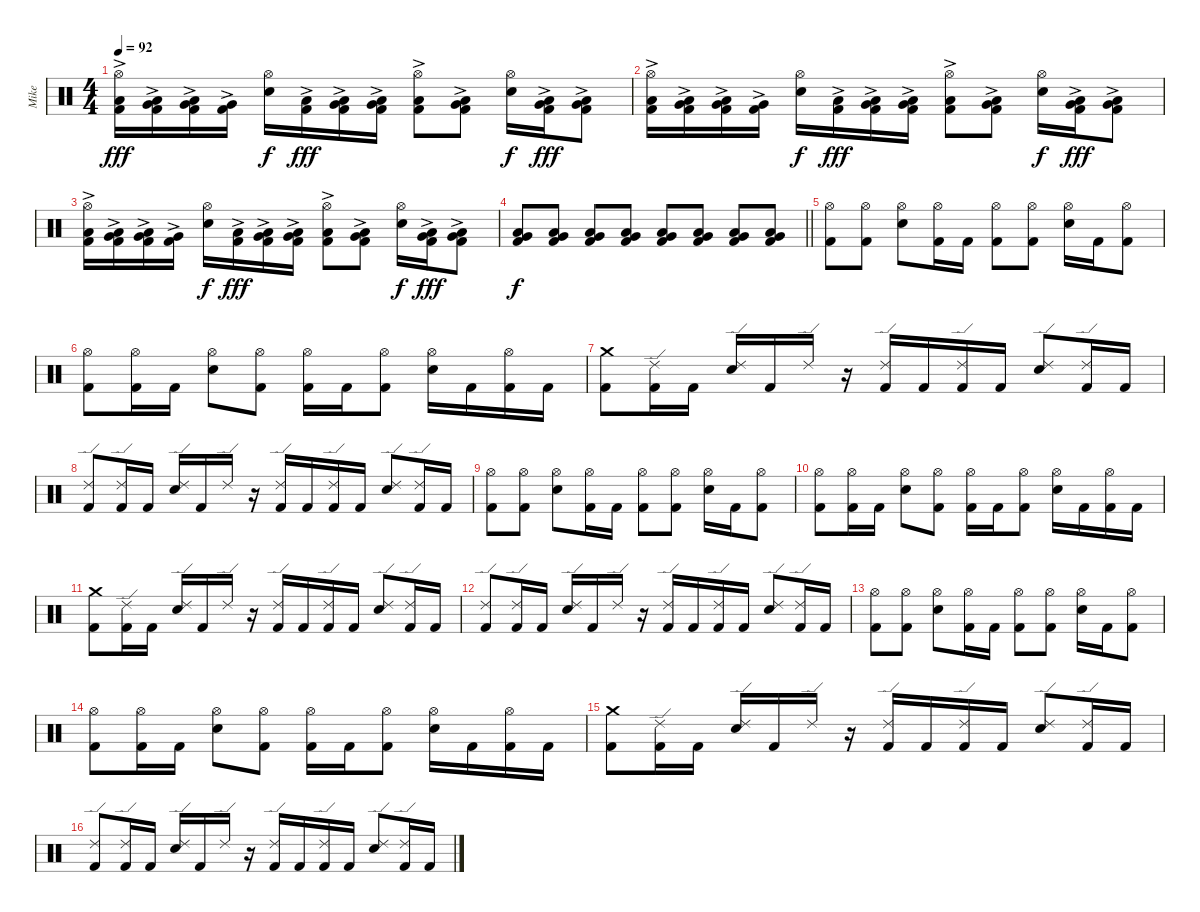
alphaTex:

\track ("Mike" "Mike") {instrument percussion}
\staff {score}
\articulation defaults
\ts (4 4)
\tempo 92
\clef neutral
\ks c
("Hi-Hat (open)" "Low Tom (hit)"{ac} "Kick (hit) 2").16{dy fff} ("Low Tom (hit)"{ac} "Very Low Tom (hit)"{ac} "Kick (hit) 2").16 ("Very Low Tom (hit)"{ac} "Low Floor Tom (hit)"{ac} "Kick (hit) 2").16 ("Very Low Tom (hit)"{ac} "Kick (hit) 2").16 ("Hi-Hat (open)" "Snare (hit) 2").16{dy f} ("Low Tom (hit)"{ac} "Kick (hit) 2").16{dy fff} ("Low Tom (hit)"{ac} "Very Low Tom (hit)"{ac} "Kick (hit) 2").16 ("Very Low Tom (hit)"{ac} "Low Floor Tom (hit)"{ac} "Kick (hit) 2").16 ("Hi-Hat (open)" "Low Floor Tom (hit)"{ac} "Kick (hit) 2").8 ("Very Low Tom (hit)"{ac} "Low Floor Tom (hit)"{ac} "Kick (hit) 2").8 ("Hi-Hat (open)" "Snare (hit) 2").16{dy f} ("Very Low Tom (hit)"{ac} "Low Floor Tom (hit)"{ac} "Kick (hit) 2").16{dy fff} ("Very Low Tom (hit)"{ac} "Low Tom (hit)"{ac} "Kick (hit) 2").8 |
("Hi-Hat (open)" "Low Tom (hit)"{ac} "Kick (hit) 2").16 ("Low Tom (hit)"{ac} "Very Low Tom (hit)"{ac} "Kick (hit) 2").16 ("Very Low Tom (hit)"{ac} "Low Floor Tom (hit)"{ac} "Kick (hit) 2").16 ("Very Low Tom (hit)"{ac} "Kick (hit) 2").16 ("Hi-Hat (open)" "Snare (hit) 2").16{dy f} ("Low Tom (hit)"{ac} "Kick (hit) 2").16{dy fff} ("Low Tom (hit)"{ac} "Very Low Tom (hit)"{ac} "Kick (hit) 2").16 ("Very Low Tom (hit)"{ac} "Low Floor Tom (hit)"{ac} "Kick (hit) 2").16 ("Hi-Hat (open)" "Low Floor Tom (hit)"{ac} "Kick (hit) 2").8 ("Very Low Tom (hit)"{ac} "Low Floor Tom (hit)"{ac} "Kick (hit) 2").8 ("Hi-Hat (open)" "Snare (hit) 2").16{dy f} ("Very Low Tom (hit)"{ac} "Low Floor Tom (hit)"{ac} "Kick (hit) 2").16{dy fff} ("Very Low Tom (hit)"{ac} "Low Tom (hit)"{ac} "Kick (hit) 2").8 |
("Hi-Hat (open)" "Low Tom (hit)"{ac} "Kick (hit) 2").16 ("Low Tom (hit)"{ac} "Very Low Tom (hit)"{ac} "Kick (hit) 2").16 ("Very Low Tom (hit)"{ac} "Low Floor Tom (hit)"{ac} "Kick (hit) 2").16 ("Very Low Tom (hit)"{ac} "Kick (hit) 2").16 ("Hi-Hat (open)" "Snare (hit) 2").16{dy f} ("Low Tom (hit)"{ac} "Kick (hit) 2").16{dy fff} ("Low Tom (hit)"{ac} "Very Low Tom (hit)"{ac} "Kick (hit) 2").16 ("Very Low Tom (hit)"{ac} "Low Floor Tom (hit)"{ac} "Kick (hit) 2").16 ("Hi-Hat (open)" "Low Floor Tom (hit)"{ac} "Kick (hit) 2").8 ("Very Low Tom (hit)"{ac} "Low Floor Tom (hit)"{ac} "Kick (hit) 2").8 ("Hi-Hat (open)" "Snare (hit) 2").16{dy f} ("Very Low Tom (hit)"{ac} "Low Floor Tom (hit)"{ac} "Kick (hit) 2").16{dy fff} ("Very Low Tom (hit)"{ac} "Low Tom (hit)"{ac} "Kick (hit) 2").8 |
\barLineRight lightlight
("Low Tom (hit)" "Very Low Tom (hit)" "Kick (hit) 2").8{dy f} ("Low Tom (hit)" "Very Low Tom (hit)" "Kick (hit) 2").8 ("Low Tom (hit)" "Very Low Tom (hit)" "Kick (hit) 2").8 ("Low Tom (hit)" "Very Low Tom (hit)" "Kick (hit) 2").8 ("Low Tom (hit)" "Very Low Tom (hit)" "Kick (hit) 2").8 ("Low Tom (hit)" "Very Low Tom (hit)" "Kick (hit) 2").8 ("Low Tom (hit)" "Very Low Tom (hit)" "Kick (hit) 2").8 ("Low Tom (hit)" "Very Low Tom (hit)" "Kick (hit) 2").8 |
("Hi-Hat (open)" "Kick (hit) 2").8 ("Hi-Hat (open)" "Kick (hit) 2").8 ("Hi-Hat (open)" "Snare (hit) 2").8 ("Hi-Hat (open)" "Kick (hit) 2").16 "Kick (hit) 2".16 ("Hi-Hat (open)" "Kick (hit) 2").8 ("Hi-Hat (open)" "Kick (hit) 2").8 ("Hi-Hat (open)" "Snare (hit) 2").16 "Kick (hit) 2".16 ("Hi-Hat (open)" "Kick (hit) 2").8 |
("Hi-Hat (open)" "Kick (hit) 2").8 ("Hi-Hat (open)" "Kick (hit) 2").16 "Kick (hit) 2".16 ("Hi-Hat (open)" "Snare (hit) 2").8 ("Hi-Hat (open)" "Kick (hit) 2").8 ("Hi-Hat (open)" "Kick (hit) 2").16 "Kick (hit) 2".16 ("Hi-Hat (open)" "Kick (hit) 2").8 ("Hi-Hat (open)" "Snare (hit) 2").16 "Kick (hit) 2".16 ("Hi-Hat (open)" "Kick (hit) 2").16 "Kick (hit) 2".16 |
("Crash medium (hit)" "Kick (hit) 2").8 ("Ride (edge) 2" "Kick (hit) 2").16 "Kick (hit) 2".16 ("Ride (edge) 2" "Snare (hit) 2").16 "Kick (hit) 2".16 "Ride (edge) 2".16 r.16 ("Ride (edge) 2" "Kick (hit) 2").16 "Kick (hit) 2".16 ("Ride (edge) 2" "Kick (hit) 2").16 "Kick (hit) 2".16 ("Ride (edge) 2" "Snare (hit) 2").8 ("Ride (edge) 2" "Kick (hit) 2").16 "Kick (hit) 2".16 |
("Ride (edge) 2" "Kick (hit) 2").8 ("Ride (edge) 2" "Kick (hit) 2").16 "Kick (hit) 2".16 ("Ride (edge) 2" "Snare (hit) 2").16 "Kick (hit) 2".16 "Ride (edge) 2".16 r.16 ("Ride (edge) 2" "Kick (hit) 2").16 "Kick (hit) 2".16 ("Ride (edge) 2" "Kick (hit) 2").16 "Kick (hit) 2".16 ("Ride (edge) 2" "Snare (hit) 2").8 ("Ride (edge) 2" "Kick (hit) 2").16 "Kick (hit) 2".16 |
("Hi-Hat (open)" "Kick (hit) 2").8 ("Hi-Hat (open)" "Kick (hit) 2").8 ("Hi-Hat (open)" "Snare (hit) 2").8 ("Hi-Hat (open)" "Kick (hit) 2").16 "Kick (hit) 2".16 ("Hi-Hat (open)" "Kick (hit) 2").8 ("Hi-Hat (open)" "Kick (hit) 2").8 ("Hi-Hat (open)" "Snare (hit) 2").16 "Kick (hit) 2".16 ("Hi-Hat (open)" "Kick (hit) 2").8 |
("Hi-Hat (open)" "Kick (hit) 2").8 ("Hi-Hat (open)" "Kick (hit) 2").16 "Kick (hit) 2".16 ("Hi-Hat (open)" "Snare (hit) 2").8 ("Hi-Hat (open)" "Kick (hit) 2").8 ("Hi-Hat (open)" "Kick (hit) 2").16 "Kick (hit) 2".16 ("Hi-Hat (open)" "Kick (hit) 2").8 ("Hi-Hat (open)" "Snare (hit) 2").16 "Kick (hit) 2".16 ("Hi-Hat (open)" "Kick (hit) 2").16 "Kick (hit) 2".16 |
("Crash medium (hit)" "Kick (hit) 2").8 ("Ride (edge) 2" "Kick (hit) 2").16 "Kick (hit) 2".16 ("Ride (edge) 2" "Snare (hit) 2").16 "Kick (hit) 2".16 "Ride (edge) 2".16 r.16 ("Ride (edge) 2" "Kick (hit) 2").16 "Kick (hit) 2".16 ("Ride (edge) 2" "Kick (hit) 2").16 "Kick (hit) 2".16 ("Ride (edge) 2" "Snare (hit) 2").8 ("Ride (edge) 2" "Kick (hit) 2").16 "Kick (hit) 2".16 |
("Ride (edge) 2" "Kick (hit) 2").8 ("Ride (edge) 2" "Kick (hit) 2").16 "Kick (hit) 2".16 ("Ride (edge) 2" "Snare (hit) 2").16 "Kick (hit) 2".16 "Ride (edge) 2".16 r.16 ("Ride (edge) 2" "Kick (hit) 2").16 "Kick (hit) 2".16 ("Ride (edge) 2" "Kick (hit) 2").16 "Kick (hit) 2".16 ("Ride (edge) 2" "Snare (hit) 2").8 ("Ride (edge) 2" "Kick (hit) 2").16 "Kick (hit) 2".16 |
("Hi-Hat (open)" "Kick (hit) 2").8 ("Hi-Hat (open)" "Kick (hit) 2").8 ("Hi-Hat (open)" "Snare (hit) 2").8 ("Hi-Hat (open)" "Kick (hit) 2").16 "Kick (hit) 2".16 ("Hi-Hat (open)" "Kick (hit) 2").8 ("Hi-Hat (open)" "Kick (hit) 2").8 ("Hi-Hat (open)" "Snare (hit) 2").16 "Kick (hit) 2".16 ("Hi-Hat (open)" "Kick (hit) 2").8 |
("Hi-Hat (open)" "Kick (hit) 2").8 ("Hi-Hat (open)" "Kick (hit) 2").16 "Kick (hit) 2".16 ("Hi-Hat (open)" "Snare (hit) 2").8 ("Hi-Hat (open)" "Kick (hit) 2").8 ("Hi-Hat (open)" "Kick (hit) 2").16 "Kick (hit) 2".16 ("Hi-Hat (open)" "Kick (hit) 2").8 ("Hi-Hat (open)" "Snare (hit) 2").16 "Kick (hit) 2".16 ("Hi-Hat (open)" "Kick (hit) 2").16 "Kick (hit) 2".16 |
("Crash medium (hit)" "Kick (hit) 2").8 ("Ride (edge) 2" "Kick (hit) 2").16 "Kick (hit) 2".16 ("Ride (edge) 2" "Snare (hit) 2").16 "Kick (hit) 2".16 "Ride (edge) 2".16 r.16 ("Ride (edge) 2" "Kick (hit) 2").16 "Kick (hit) 2".16 ("Ride (edge) 2" "Kick (hit) 2").16 "Kick (hit) 2".16 ("Ride (edge) 2" "Snare (hit) 2").8 ("Ride (edge) 2" "Kick (hit) 2").16 "Kick (hit) 2".16 |
("Ride (edge) 2" "Kick (hit) 2").8 ("Ride (edge) 2" "Kick (hit) 2").16 "Kick (hit) 2".16 ("Ride (edge) 2" "Snare (hit) 2").16 "Kick (hit) 2".16 "Ride (edge) 2".16 r.16 ("Ride (edge) 2" "Kick (hit) 2").16 "Kick (hit) 2".16 ("Ride (edge) 2" "Kick (hit) 2").16 "Kick (hit) 2".16 ("Ride (edge) 2" "Snare (hit) 2").8 ("Ride (edge) 2" "Kick (hit) 2").16 "Kick (hit) 2".16
